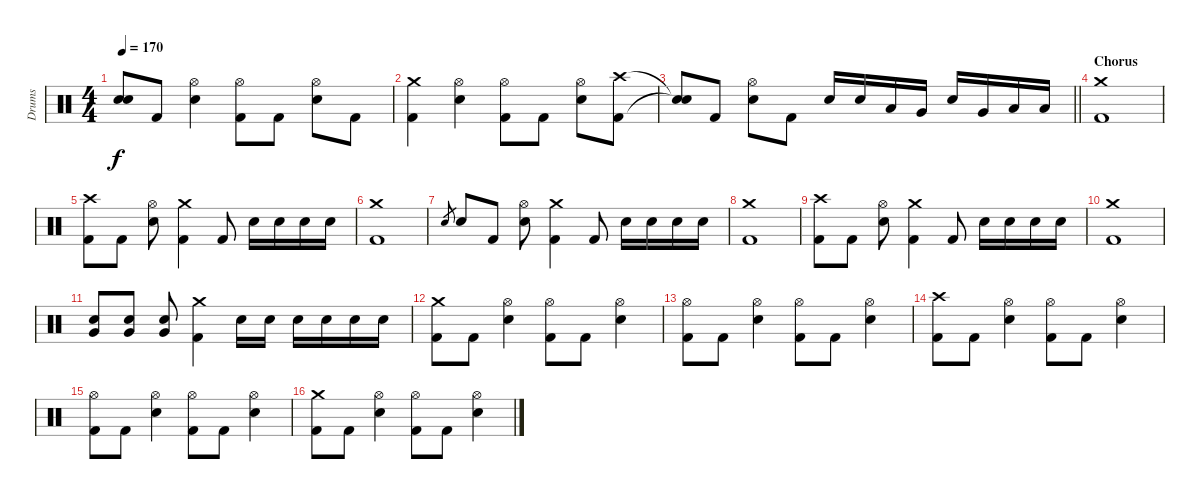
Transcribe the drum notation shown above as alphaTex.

\track ("Drums" "Drums") {instrument percussion}
\staff {score}
\articulation defaults
\ts (4 4)
\tempo 170
\clef neutral
\ks c
("Snare (hit)"{t} "Snare (hit)"{t}).8{dy f} "Kick (hit) 2".8 ("Hi-Hat (open)" "Electric Snare (hit)").4 ("Hi-Hat (open)" "Kick (hit) 2").8 "Kick (hit) 2".8 ("Hi-Hat (open)" "Electric Snare (hit)").8 "Kick (hit) 2".8 |
("Crash medium (hit)" "Kick (hit) 2").4 ("Hi-Hat (open)" "Electric Snare (hit)").4 ("Hi-Hat (open)" "Kick (hit) 2").8 "Kick (hit) 2".8 ("Hi-Hat (open)" "Electric Snare (hit)").8 ("Crash high (hit)" "Kick (hit) 2").8 |
\barLineRight lightlight
("Snare (hit)"{t} "Snare (hit)"{t}).8 "Kick (hit) 2".8 ("Hi-Hat (open)" "Electric Snare (hit)").8 "Kick (hit) 2".8 "Electric Snare (hit)".16 "Electric Snare (hit)".16 "Low Tom (hit)".16 "Very Low Tom (hit)".16 "Electric Snare (hit)".16 "Very Low Tom (hit)".16 "Low Floor Tom (hit)".16 "Low Floor Tom (hit)".16 |
\section ("" "Chorus")
("Crash medium (hit)" "Kick (hit) 2").1 |
("Crash high (hit)" "Kick (hit) 2").8 "Kick (hit) 2".8 ("Hi-Hat (open)" "Electric Snare (hit)").8 ("Crash medium (hit)" "Kick (hit) 2").4 "Kick (hit) 2".8 "Electric Snare (hit)".16 "Electric Snare (hit)".16 "Electric Snare (hit)".16 "Electric Snare (hit)".16 |
("Crash medium (hit)" "Kick (hit) 2").1 |
"Electric Snare (hit)".8{gr} "Electric Snare (hit)".8 "Kick (hit) 2".8 ("Hi-Hat (open)" "Electric Snare (hit)").8 ("Crash medium (hit)" "Kick (hit) 2").4 "Kick (hit) 2".8 "Electric Snare (hit)".16 "Electric Snare (hit)".16 "Electric Snare (hit)".16 "Electric Snare (hit)".16 |
("Crash medium (hit)" "Kick (hit) 2").1 |
("Crash high (hit)" "Kick (hit) 2").8 "Kick (hit) 2".8 ("Hi-Hat (open)" "Electric Snare (hit)").8 ("Crash medium (hit)" "Kick (hit) 2").4 "Kick (hit) 2".8 "Electric Snare (hit)".16 "Electric Snare (hit)".16 "Electric Snare (hit)".16 "Electric Snare (hit)".16 |
("Crash medium (hit)" "Kick (hit) 2").1 |
("Very Low Tom (hit)" "Electric Snare (hit)").8 ("Very Low Tom (hit)" "Electric Snare (hit)").8 ("Very Low Tom (hit)" "Electric Snare (hit)").8 ("Crash medium (hit)" "Kick (hit) 2").4 "Electric Snare (hit)".16 "Electric Snare (hit)".16 "Electric Snare (hit)".16 "Electric Snare (hit)".16 "Electric Snare (hit)".16 "Electric Snare (hit)".16 |
("Crash medium (hit)" "Kick (hit) 2").8 "Kick (hit) 2".8 ("Hi-Hat (open)" "Electric Snare (hit)").4 ("Hi-Hat (open)" "Kick (hit) 2").8 "Kick (hit) 2".8 ("Hi-Hat (open)" "Electric Snare (hit)").4 |
("Hi-Hat (open)" "Kick (hit) 2").8 "Kick (hit) 2".8 ("Hi-Hat (open)" "Electric Snare (hit)").4 ("Hi-Hat (open)" "Kick (hit) 2").8 "Kick (hit) 2".8 ("Hi-Hat (open)" "Electric Snare (hit)").4 |
("Crash high (hit)" "Kick (hit) 2").8 "Kick (hit) 2".8 ("Hi-Hat (open)" "Electric Snare (hit)").4 ("Hi-Hat (open)" "Kick (hit) 2").8 "Kick (hit) 2".8 ("Hi-Hat (open)" "Electric Snare (hit)").4 |
("Hi-Hat (open)" "Kick (hit) 2").8 "Kick (hit) 2".8 ("Hi-Hat (open)" "Electric Snare (hit)").4 ("Hi-Hat (open)" "Kick (hit) 2").8 "Kick (hit) 2".8 ("Hi-Hat (open)" "Electric Snare (hit)").4 |
("Crash medium (hit)" "Kick (hit) 2").8 "Kick (hit) 2".8 ("Hi-Hat (open)" "Electric Snare (hit)").4 ("Hi-Hat (open)" "Kick (hit) 2").8 "Kick (hit) 2".8 ("Hi-Hat (open)" "Electric Snare (hit)").4
